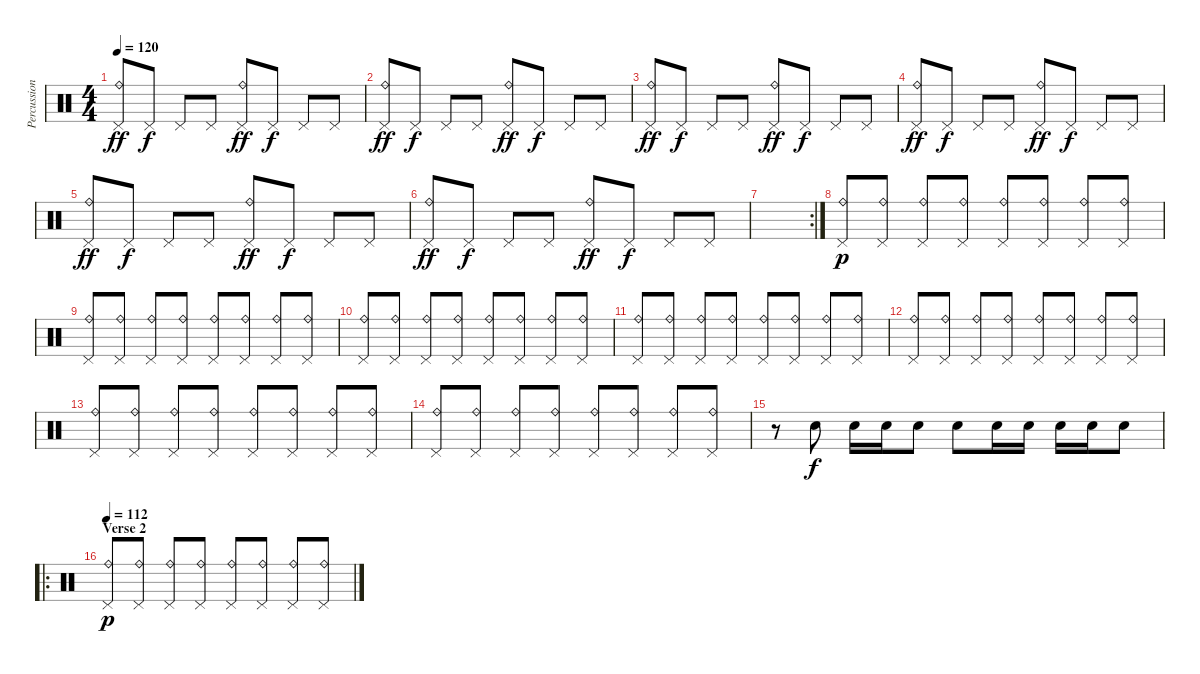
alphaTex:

\track ("Percussion 2" "Percussion") {instrument percussion}
\staff {score}
\articulation defaults
\ts (4 4)
\tempo 120
\clef neutral
\ks c
("Pedal Hi-Hat (hit)" "Ride (bell)").8{dy ff} "Pedal Hi-Hat (hit)".8{dy f} "Pedal Hi-Hat (hit)".8 "Pedal Hi-Hat (hit)".8 ("Pedal Hi-Hat (hit)" "Ride (bell)").8{dy ff} "Pedal Hi-Hat (hit)".8{dy f} "Pedal Hi-Hat (hit)".8 "Pedal Hi-Hat (hit)".8 |
("Pedal Hi-Hat (hit)" "Ride (bell)").8{dy ff} "Pedal Hi-Hat (hit)".8{dy f} "Pedal Hi-Hat (hit)".8 "Pedal Hi-Hat (hit)".8 ("Pedal Hi-Hat (hit)" "Ride (bell)").8{dy ff} "Pedal Hi-Hat (hit)".8{dy f} "Pedal Hi-Hat (hit)".8 "Pedal Hi-Hat (hit)".8 |
("Pedal Hi-Hat (hit)" "Ride (bell)").8{dy ff} "Pedal Hi-Hat (hit)".8{dy f} "Pedal Hi-Hat (hit)".8 "Pedal Hi-Hat (hit)".8 ("Pedal Hi-Hat (hit)" "Ride (bell)").8{dy ff} "Pedal Hi-Hat (hit)".8{dy f} "Pedal Hi-Hat (hit)".8 "Pedal Hi-Hat (hit)".8 |
("Pedal Hi-Hat (hit)" "Ride (bell)").8{dy ff} "Pedal Hi-Hat (hit)".8{dy f} "Pedal Hi-Hat (hit)".8 "Pedal Hi-Hat (hit)".8 ("Pedal Hi-Hat (hit)" "Ride (bell)").8{dy ff} "Pedal Hi-Hat (hit)".8{dy f} "Pedal Hi-Hat (hit)".8 "Pedal Hi-Hat (hit)".8 |
("Pedal Hi-Hat (hit)" "Ride (bell)").8{dy ff} "Pedal Hi-Hat (hit)".8{dy f} "Pedal Hi-Hat (hit)".8 "Pedal Hi-Hat (hit)".8 ("Pedal Hi-Hat (hit)" "Ride (bell)").8{dy ff} "Pedal Hi-Hat (hit)".8{dy f} "Pedal Hi-Hat (hit)".8 "Pedal Hi-Hat (hit)".8 |
("Pedal Hi-Hat (hit)" "Ride (bell)").8{dy ff} "Pedal Hi-Hat (hit)".8{dy f} "Pedal Hi-Hat (hit)".8 "Pedal Hi-Hat (hit)".8 ("Pedal Hi-Hat (hit)" "Ride (bell)").8{dy ff} "Pedal Hi-Hat (hit)".8{dy f} "Pedal Hi-Hat (hit)".8 "Pedal Hi-Hat (hit)".8 |
\rc 2
|
("Pedal Hi-Hat (hit)" "Ride (bell)").8{dy p} ("Pedal Hi-Hat (hit)" "Ride (bell)").8 ("Pedal Hi-Hat (hit)" "Ride (bell)").8 ("Pedal Hi-Hat (hit)" "Ride (bell)").8 ("Pedal Hi-Hat (hit)" "Ride (bell)").8 ("Pedal Hi-Hat (hit)" "Ride (bell)").8 ("Pedal Hi-Hat (hit)" "Ride (bell)").8 ("Pedal Hi-Hat (hit)" "Ride (bell)").8 |
("Pedal Hi-Hat (hit)" "Ride (bell)").8 ("Pedal Hi-Hat (hit)" "Ride (bell)").8 ("Pedal Hi-Hat (hit)" "Ride (bell)").8 ("Pedal Hi-Hat (hit)" "Ride (bell)").8 ("Pedal Hi-Hat (hit)" "Ride (bell)").8 ("Pedal Hi-Hat (hit)" "Ride (bell)").8 ("Pedal Hi-Hat (hit)" "Ride (bell)").8 ("Pedal Hi-Hat (hit)" "Ride (bell)").8 |
("Pedal Hi-Hat (hit)" "Ride (bell)").8 ("Pedal Hi-Hat (hit)" "Ride (bell)").8 ("Pedal Hi-Hat (hit)" "Ride (bell)").8 ("Pedal Hi-Hat (hit)" "Ride (bell)").8 ("Pedal Hi-Hat (hit)" "Ride (bell)").8 ("Pedal Hi-Hat (hit)" "Ride (bell)").8 ("Pedal Hi-Hat (hit)" "Ride (bell)").8 ("Pedal Hi-Hat (hit)" "Ride (bell)").8 |
("Pedal Hi-Hat (hit)" "Ride (bell)").8 ("Pedal Hi-Hat (hit)" "Ride (bell)").8 ("Pedal Hi-Hat (hit)" "Ride (bell)").8 ("Pedal Hi-Hat (hit)" "Ride (bell)").8 ("Pedal Hi-Hat (hit)" "Ride (bell)").8 ("Pedal Hi-Hat (hit)" "Ride (bell)").8 ("Pedal Hi-Hat (hit)" "Ride (bell)").8 ("Pedal Hi-Hat (hit)" "Ride (bell)").8 |
("Pedal Hi-Hat (hit)" "Ride (bell)").8 ("Pedal Hi-Hat (hit)" "Ride (bell)").8 ("Pedal Hi-Hat (hit)" "Ride (bell)").8 ("Pedal Hi-Hat (hit)" "Ride (bell)").8 ("Pedal Hi-Hat (hit)" "Ride (bell)").8 ("Pedal Hi-Hat (hit)" "Ride (bell)").8 ("Pedal Hi-Hat (hit)" "Ride (bell)").8 ("Pedal Hi-Hat (hit)" "Ride (bell)").8 |
("Pedal Hi-Hat (hit)" "Ride (bell)").8 ("Pedal Hi-Hat (hit)" "Ride (bell)").8 ("Pedal Hi-Hat (hit)" "Ride (bell)").8 ("Pedal Hi-Hat (hit)" "Ride (bell)").8 ("Pedal Hi-Hat (hit)" "Ride (bell)").8 ("Pedal Hi-Hat (hit)" "Ride (bell)").8 ("Pedal Hi-Hat (hit)" "Ride (bell)").8 ("Pedal Hi-Hat (hit)" "Ride (bell)").8 |
("Pedal Hi-Hat (hit)" "Ride (bell)").8 ("Pedal Hi-Hat (hit)" "Ride (bell)").8 ("Pedal Hi-Hat (hit)" "Ride (bell)").8 ("Pedal Hi-Hat (hit)" "Ride (bell)").8 ("Pedal Hi-Hat (hit)" "Ride (bell)").8 ("Pedal Hi-Hat (hit)" "Ride (bell)").8 ("Pedal Hi-Hat (hit)" "Ride (bell)").8 ("Pedal Hi-Hat (hit)" "Ride (bell)").8 |
r.8 "Electric Snare (hit)".8{dy f} "Electric Snare (hit)".16 "Electric Snare (hit)".16 "Electric Snare (hit)".8 "Electric Snare (hit)".8 "Electric Snare (hit)".16 "Electric Snare (hit)".16 "Electric Snare (hit)".16 "Electric Snare (hit)".16 "Electric Snare (hit)".8 |
\ro
\section ("" "Verse 2")
\tempo 112
("Pedal Hi-Hat (hit)" "Ride (bell)").8{dy p} ("Pedal Hi-Hat (hit)" "Ride (bell)").8 ("Pedal Hi-Hat (hit)" "Ride (bell)").8 ("Pedal Hi-Hat (hit)" "Ride (bell)").8 ("Pedal Hi-Hat (hit)" "Ride (bell)").8 ("Pedal Hi-Hat (hit)" "Ride (bell)").8 ("Pedal Hi-Hat (hit)" "Ride (bell)").8 ("Pedal Hi-Hat (hit)" "Ride (bell)").8
